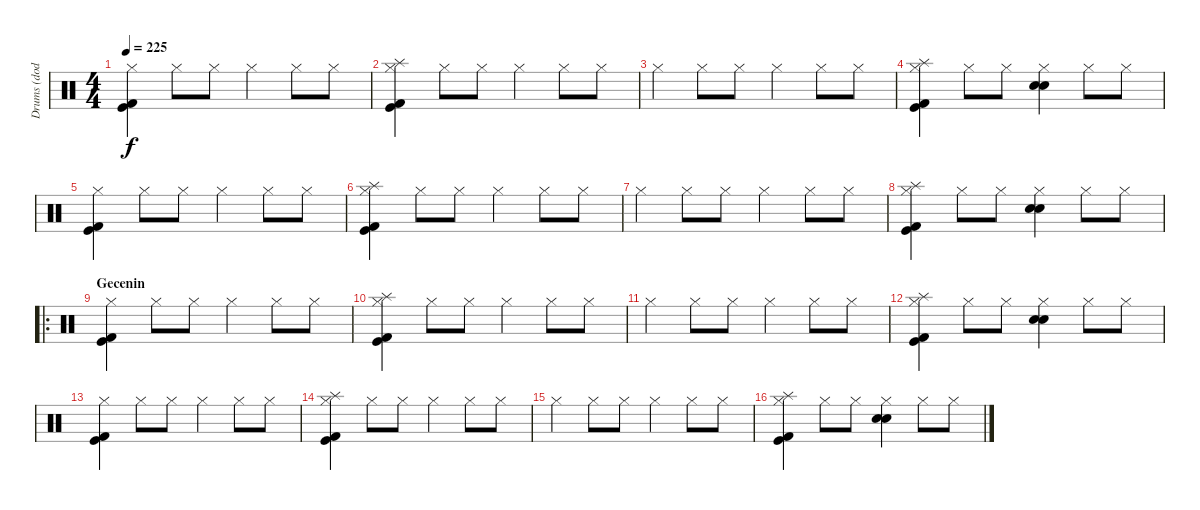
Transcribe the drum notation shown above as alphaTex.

\track ("Drums (dodo)" "Drums (dod") {instrument percussion}
\staff {score}
\articulation defaults
\ts (4 4)
\tempo 225
\clef neutral
\ks c
("Hi-Hat (closed)" "Kick (hit)" "Kick (hit) 2").4{dy f} "Hi-Hat (closed)".8 "Hi-Hat (closed)".8 "Hi-Hat (closed)".4 "Hi-Hat (closed)".8 "Hi-Hat (closed)".8 |
("Hi-Hat (closed)" "Splash (hit)" "Kick (hit)" "Kick (hit) 2").4 "Hi-Hat (closed)".8 "Hi-Hat (closed)".8 "Hi-Hat (closed)".4 "Hi-Hat (closed)".8 "Hi-Hat (closed)".8 |
"Hi-Hat (closed)".4 "Hi-Hat (closed)".8 "Hi-Hat (closed)".8 "Hi-Hat (closed)".4 "Hi-Hat (closed)".8 "Hi-Hat (closed)".8 |
("Hi-Hat (closed)" "Splash (hit)" "Kick (hit)" "Kick (hit) 2").4 "Hi-Hat (closed)".8 "Hi-Hat (closed)".8 ("Hi-Hat (closed)" "Electric Snare (hit)" "Snare (hit) 2").4 "Hi-Hat (closed)".8 "Hi-Hat (closed)".8 |
("Hi-Hat (closed)" "Kick (hit)" "Kick (hit) 2").4 "Hi-Hat (closed)".8 "Hi-Hat (closed)".8 "Hi-Hat (closed)".4 "Hi-Hat (closed)".8 "Hi-Hat (closed)".8 |
("Hi-Hat (closed)" "Splash (hit)" "Kick (hit)" "Kick (hit) 2").4 "Hi-Hat (closed)".8 "Hi-Hat (closed)".8 "Hi-Hat (closed)".4 "Hi-Hat (closed)".8 "Hi-Hat (closed)".8 |
"Hi-Hat (closed)".4 "Hi-Hat (closed)".8 "Hi-Hat (closed)".8 "Hi-Hat (closed)".4 "Hi-Hat (closed)".8 "Hi-Hat (closed)".8 |
("Hi-Hat (closed)" "Splash (hit)" "Kick (hit)" "Kick (hit) 2").4 "Hi-Hat (closed)".8 "Hi-Hat (closed)".8 ("Hi-Hat (closed)" "Electric Snare (hit)" "Snare (hit) 2").4 "Hi-Hat (closed)".8 "Hi-Hat (closed)".8 |
\ro
\section ("" "Gecenin")
("Hi-Hat (closed)" "Kick (hit)" "Kick (hit) 2").4 "Hi-Hat (closed)".8 "Hi-Hat (closed)".8 "Hi-Hat (closed)".4 "Hi-Hat (closed)".8 "Hi-Hat (closed)".8 |
("Hi-Hat (closed)" "Splash (hit)" "Kick (hit)" "Kick (hit) 2").4 "Hi-Hat (closed)".8 "Hi-Hat (closed)".8 "Hi-Hat (closed)".4 "Hi-Hat (closed)".8 "Hi-Hat (closed)".8 |
"Hi-Hat (closed)".4 "Hi-Hat (closed)".8 "Hi-Hat (closed)".8 "Hi-Hat (closed)".4 "Hi-Hat (closed)".8 "Hi-Hat (closed)".8 |
("Hi-Hat (closed)" "Splash (hit)" "Kick (hit)" "Kick (hit) 2").4 "Hi-Hat (closed)".8 "Hi-Hat (closed)".8 ("Hi-Hat (closed)" "Electric Snare (hit)" "Snare (hit) 2").4 "Hi-Hat (closed)".8 "Hi-Hat (closed)".8 |
("Hi-Hat (closed)" "Kick (hit)" "Kick (hit) 2").4 "Hi-Hat (closed)".8 "Hi-Hat (closed)".8 "Hi-Hat (closed)".4 "Hi-Hat (closed)".8 "Hi-Hat (closed)".8 |
("Hi-Hat (closed)" "Splash (hit)" "Kick (hit)" "Kick (hit) 2").4 "Hi-Hat (closed)".8 "Hi-Hat (closed)".8 "Hi-Hat (closed)".4 "Hi-Hat (closed)".8 "Hi-Hat (closed)".8 |
"Hi-Hat (closed)".4 "Hi-Hat (closed)".8 "Hi-Hat (closed)".8 "Hi-Hat (closed)".4 "Hi-Hat (closed)".8 "Hi-Hat (closed)".8 |
("Hi-Hat (closed)" "Splash (hit)" "Kick (hit)" "Kick (hit) 2").4 "Hi-Hat (closed)".8 "Hi-Hat (closed)".8 ("Hi-Hat (closed)" "Electric Snare (hit)" "Snare (hit) 2").4 "Hi-Hat (closed)".8 "Hi-Hat (closed)".8
